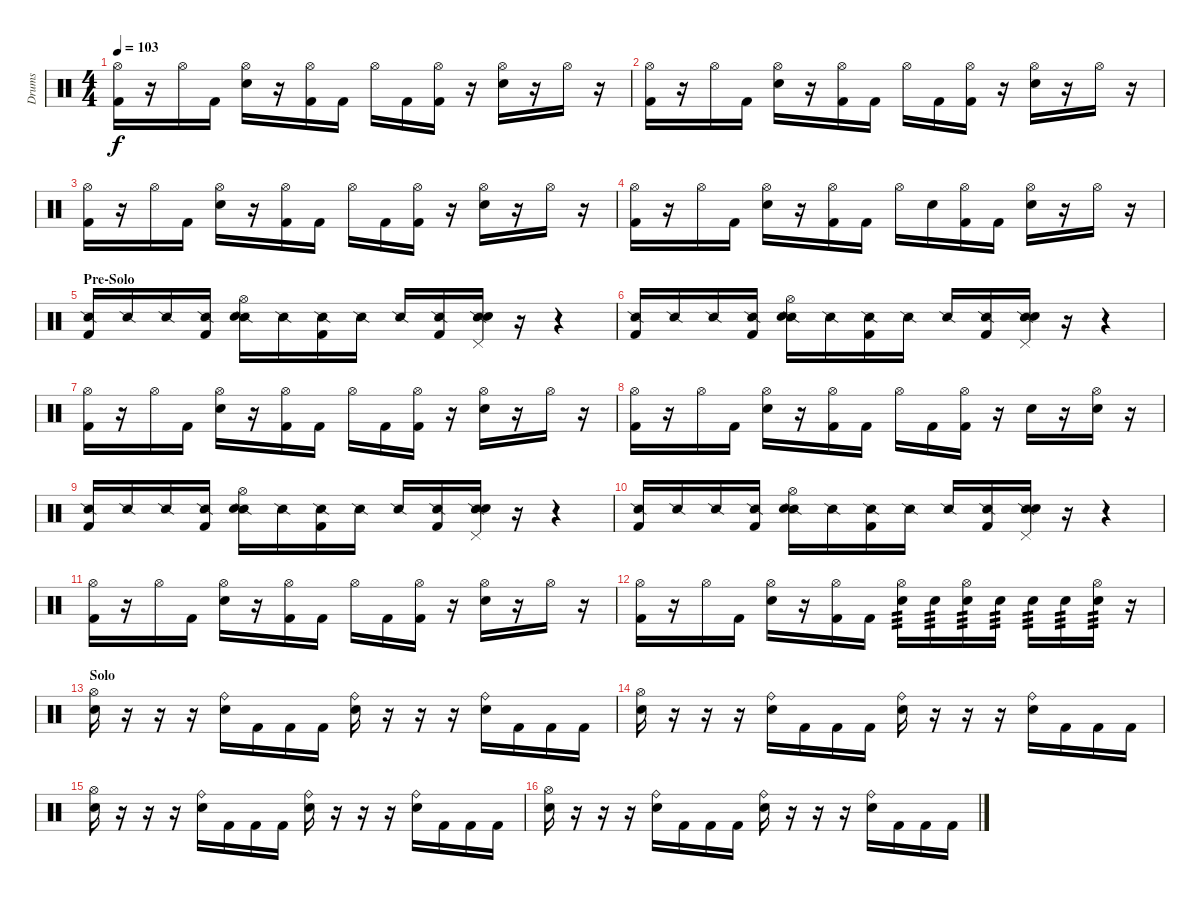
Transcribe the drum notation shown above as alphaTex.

\track ("Drums" "Drums") {instrument percussion}
\staff {score}
\articulation defaults
\ts (4 4)
\tempo 103
\clef neutral
\ks c
("Hi-Hat (open)" "Kick (hit) 2").16{dy f volume 11} r.16 "Hi-Hat (open)".16 "Kick (hit) 2".16 ("Hi-Hat (open)" "Electric Snare (hit)").16 r.16 ("Hi-Hat (open)" "Kick (hit) 2").16 "Kick (hit) 2".16 "Hi-Hat (open)".16 "Kick (hit) 2".16 ("Hi-Hat (open)" "Kick (hit) 2").16 r.16 ("Hi-Hat (open)" "Electric Snare (hit)").16 r.16 "Hi-Hat (open)".16 r.16 |
("Hi-Hat (open)" "Kick (hit) 2").16{volume 11} r.16 "Hi-Hat (open)".16 "Kick (hit) 2".16 ("Hi-Hat (open)" "Electric Snare (hit)").16 r.16 ("Hi-Hat (open)" "Kick (hit) 2").16 "Kick (hit) 2".16 "Hi-Hat (open)".16 "Kick (hit) 2".16 ("Hi-Hat (open)" "Kick (hit) 2").16 r.16 ("Hi-Hat (open)" "Electric Snare (hit)").16 r.16 "Hi-Hat (open)".16 r.16 |
("Hi-Hat (open)" "Kick (hit) 2").16{volume 11} r.16 "Hi-Hat (open)".16 "Kick (hit) 2".16 ("Hi-Hat (open)" "Electric Snare (hit)").16 r.16 ("Hi-Hat (open)" "Kick (hit) 2").16 "Kick (hit) 2".16 "Hi-Hat (open)".16 "Kick (hit) 2".16 ("Hi-Hat (open)" "Kick (hit) 2").16 r.16 ("Hi-Hat (open)" "Electric Snare (hit)").16 r.16 "Hi-Hat (open)".16 r.16 |
("Hi-Hat (open)" "Kick (hit) 2").16{volume 11} r.16 "Hi-Hat (open)".16 "Kick (hit) 2".16 ("Hi-Hat (open)" "Electric Snare (hit)").16 r.16 ("Hi-Hat (open)" "Kick (hit) 2").16 "Kick (hit) 2".16 "Hi-Hat (open)".16 "Electric Snare (hit)".16 ("Hi-Hat (open)" "Kick (hit) 2").16 "Kick (hit) 2".16 ("Hi-Hat (open)" "Electric Snare (hit)").16 r.16 "Hi-Hat (open)".16 r.16 |
\section ("" "Pre-Solo")
("Snare (side stick) 2" "Kick (hit) 2").16 "Snare (side stick) 2".16 "Snare (side stick) 2".16 ("Snare (side stick) 2" "Kick (hit) 2").16 ("Hi-Hat (open)" "Snare (side stick) 2" "Electric Snare (hit)").16 "Snare (side stick) 2".16 ("Snare (side stick) 2" "Kick (hit) 2").16 "Snare (side stick) 2".16 "Snare (side stick) 2".16 ("Snare (side stick) 2" "Kick (hit) 2").16 ("Pedal Hi-Hat (hit)" "Snare (side stick) 2" "Electric Snare (hit)").16 r.16 r.4 |
("Snare (side stick) 2" "Kick (hit) 2").16 "Snare (side stick) 2".16 "Snare (side stick) 2".16 ("Snare (side stick) 2" "Kick (hit) 2").16 ("Hi-Hat (open)" "Snare (side stick) 2" "Electric Snare (hit)").16 "Snare (side stick) 2".16 ("Snare (side stick) 2" "Kick (hit) 2").16 "Snare (side stick) 2".16 "Snare (side stick) 2".16 ("Snare (side stick) 2" "Kick (hit) 2").16 ("Pedal Hi-Hat (hit)" "Snare (side stick) 2" "Electric Snare (hit)").16 r.16 r.4 |
("Hi-Hat (open)" "Kick (hit) 2").16{volume 11} r.16 "Hi-Hat (open)".16 "Kick (hit) 2".16 ("Hi-Hat (open)" "Electric Snare (hit)").16 r.16 ("Hi-Hat (open)" "Kick (hit) 2").16 "Kick (hit) 2".16 "Hi-Hat (open)".16 "Kick (hit) 2".16 ("Hi-Hat (open)" "Kick (hit) 2").16 r.16 ("Hi-Hat (open)" "Electric Snare (hit)").16 r.16 "Hi-Hat (open)".16 r.16 |
("Hi-Hat (open)" "Kick (hit) 2").16{volume 11} r.16 "Hi-Hat (open)".16 "Kick (hit) 2".16 ("Hi-Hat (open)" "Electric Snare (hit)").16 r.16 ("Hi-Hat (open)" "Kick (hit) 2").16 "Kick (hit) 2".16 "Hi-Hat (open)".16 "Kick (hit) 2".16 ("Hi-Hat (open)" "Kick (hit) 2").16 r.16 "Electric Snare (hit)".16 r.16 ("Hi-Hat (open)" "Electric Snare (hit)").16 r.16 |
("Snare (side stick) 2" "Kick (hit) 2").16 "Snare (side stick) 2".16 "Snare (side stick) 2".16 ("Snare (side stick) 2" "Kick (hit) 2").16 ("Hi-Hat (open)" "Snare (side stick) 2" "Electric Snare (hit)").16 "Snare (side stick) 2".16 ("Snare (side stick) 2" "Kick (hit) 2").16 "Snare (side stick) 2".16 "Snare (side stick) 2".16 ("Snare (side stick) 2" "Kick (hit) 2").16 ("Pedal Hi-Hat (hit)" "Snare (side stick) 2" "Electric Snare (hit)").16 r.16 r.4 |
("Snare (side stick) 2" "Kick (hit) 2").16 "Snare (side stick) 2".16 "Snare (side stick) 2".16 ("Snare (side stick) 2" "Kick (hit) 2").16 ("Hi-Hat (open)" "Snare (side stick) 2" "Electric Snare (hit)").16 "Snare (side stick) 2".16 ("Snare (side stick) 2" "Kick (hit) 2").16 "Snare (side stick) 2".16 "Snare (side stick) 2".16 ("Snare (side stick) 2" "Kick (hit) 2").16 ("Pedal Hi-Hat (hit)" "Snare (side stick) 2" "Electric Snare (hit)").16 r.16 r.4 |
("Hi-Hat (open)" "Kick (hit) 2").16{volume 11} r.16 "Hi-Hat (open)".16 "Kick (hit) 2".16 ("Hi-Hat (open)" "Electric Snare (hit)").16 r.16 ("Hi-Hat (open)" "Kick (hit) 2").16 "Kick (hit) 2".16 "Hi-Hat (open)".16 "Kick (hit) 2".16 ("Hi-Hat (open)" "Kick (hit) 2").16 r.16 ("Hi-Hat (open)" "Electric Snare (hit)").16 r.16 "Hi-Hat (open)".16 r.16 |
("Hi-Hat (open)" "Kick (hit) 2").16{volume 11} r.16 "Hi-Hat (open)".16 "Kick (hit) 2".16 ("Hi-Hat (open)" "Electric Snare (hit)").16 r.16 ("Hi-Hat (open)" "Kick (hit) 2").16 "Kick (hit) 2".16 ("Hi-Hat (open)" "Electric Snare (hit)").16{tp 3} "Electric Snare (hit)".16{tp 3} ("Hi-Hat (open)" "Electric Snare (hit)").16{tp 3} "Electric Snare (hit)".16{tp 3} "Electric Snare (hit)".16{tp 3} "Electric Snare (hit)".16{tp 3} ("Hi-Hat (open)" "Electric Snare (hit)").16{tp 3} r.16 |
\section ("" "Solo")
("Hi-Hat (open)" "Electric Snare (hit)").16 r.16 r.16 r.16 ("Ride (bell)" "Electric Snare (hit)").16 "Kick (hit) 2".16 "Kick (hit) 2".16 "Kick (hit) 2".16 ("Ride (bell)" "Electric Snare (hit)").16 r.16 r.16 r.16 ("Ride (bell)" "Electric Snare (hit)").16 "Kick (hit) 2".16 "Kick (hit) 2".16 "Kick (hit) 2".16 |
("Hi-Hat (open)" "Electric Snare (hit)").16 r.16 r.16 r.16 ("Ride (bell)" "Electric Snare (hit)").16 "Kick (hit) 2".16 "Kick (hit) 2".16 "Kick (hit) 2".16 ("Ride (bell)" "Electric Snare (hit)").16 r.16 r.16 r.16 ("Ride (bell)" "Electric Snare (hit)").16 "Kick (hit) 2".16 "Kick (hit) 2".16 "Kick (hit) 2".16 |
("Hi-Hat (open)" "Electric Snare (hit)").16 r.16 r.16 r.16 ("Ride (bell)" "Electric Snare (hit)").16 "Kick (hit) 2".16 "Kick (hit) 2".16 "Kick (hit) 2".16 ("Ride (bell)" "Electric Snare (hit)").16 r.16 r.16 r.16 ("Ride (bell)" "Electric Snare (hit)").16 "Kick (hit) 2".16 "Kick (hit) 2".16 "Kick (hit) 2".16 |
("Hi-Hat (open)" "Electric Snare (hit)").16 r.16 r.16 r.16 ("Ride (bell)" "Electric Snare (hit)").16 "Kick (hit) 2".16 "Kick (hit) 2".16 "Kick (hit) 2".16 ("Ride (bell)" "Electric Snare (hit)").16 r.16 r.16 r.16 ("Ride (bell)" "Electric Snare (hit)").16 "Kick (hit) 2".16 "Kick (hit) 2".16 "Kick (hit) 2".16
